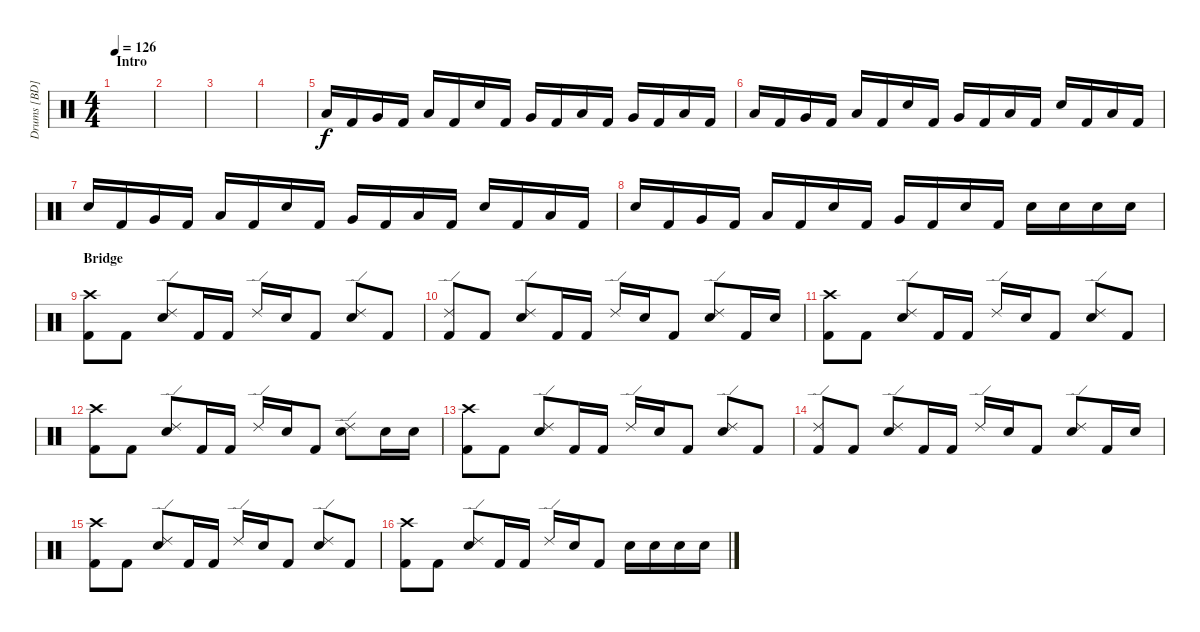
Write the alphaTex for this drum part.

\track ("Drums [BD]" "Drums [BD]") {instrument percussion}
\staff {score}
\articulation defaults
\ts (4 4)
\section ("" "Intro")
\tempo 126
\clef neutral
\ks c
|
|
|
|
"Low Tom (hit)".16 "Kick (hit) 2".16 "Very Low Tom (hit)".16 "Kick (hit) 2".16 "Low Floor Tom (hit)".16 "Kick (hit) 2".16 "Electric Snare (hit)".16 "Kick (hit) 2".16 "Very Low Tom (hit)".16 "Kick (hit) 2".16 "Low Floor Tom (hit)".16 "Kick (hit) 2".16 "Very Low Tom (hit)".16 "Kick (hit) 2".16 "Low Floor Tom (hit)".16 "Kick (hit) 2".16 |
"Low Tom (hit)".16 "Kick (hit) 2".16 "Very Low Tom (hit)".16 "Kick (hit) 2".16 "Low Floor Tom (hit)".16 "Kick (hit) 2".16 "Electric Snare (hit)".16 "Kick (hit) 2".16 "Very Low Tom (hit)".16 "Kick (hit) 2".16 "Low Floor Tom (hit)".16 "Kick (hit) 2".16 "Electric Snare (hit)".16 "Kick (hit) 2".16 "Low Floor Tom (hit)".16 "Kick (hit) 2".16 |
"Electric Snare (hit)".16 "Kick (hit) 2".16 "Very Low Tom (hit)".16 "Kick (hit) 2".16 "Low Floor Tom (hit)".16 "Kick (hit) 2".16 "Electric Snare (hit)".16 "Kick (hit) 2".16 "Very Low Tom (hit)".16 "Kick (hit) 2".16 "Low Floor Tom (hit)".16 "Kick (hit) 2".16 "Electric Snare (hit)".16 "Kick (hit) 2".16 "Low Floor Tom (hit)".16 "Kick (hit) 2".16 |
"Electric Snare (hit)".16 "Kick (hit) 2".16 "Very Low Tom (hit)".16 "Kick (hit) 2".16 "Low Floor Tom (hit)".16 "Kick (hit) 2".16 "Electric Snare (hit)".16 "Kick (hit) 2".16 "Very Low Tom (hit)".16 "Kick (hit) 2".16 "Electric Snare (hit)".16 "Kick (hit) 2".16 "Electric Snare (hit)".16 "Electric Snare (hit)".16 "Electric Snare (hit)".16 "Electric Snare (hit)".16 |
\section ("" "Bridge")
("Kick (hit) 2" "Crash high (hit)").8 "Kick (hit) 2".8 ("Electric Snare (hit)" "Ride (edge) 2").8 "Kick (hit) 2".16 "Kick (hit) 2".16 "Ride (edge) 2".16 "Electric Snare (hit)".16 "Kick (hit) 2".8 ("Electric Snare (hit)" "Ride (edge) 2").8 "Kick (hit) 2".8 |
("Kick (hit) 2" "Ride (edge) 2").8 "Kick (hit) 2".8 ("Electric Snare (hit)" "Ride (edge) 2").8 "Kick (hit) 2".16 "Kick (hit) 2".16 "Ride (edge) 2".16 "Electric Snare (hit)".16 "Kick (hit) 2".8 ("Electric Snare (hit)" "Ride (edge) 2").8 "Kick (hit) 2".16 "Electric Snare (hit)".16 |
("Kick (hit) 2" "Crash high (hit)").8 "Kick (hit) 2".8 ("Electric Snare (hit)" "Ride (edge) 2").8 "Kick (hit) 2".16 "Kick (hit) 2".16 "Ride (edge) 2".16 "Electric Snare (hit)".16 "Kick (hit) 2".8 ("Electric Snare (hit)" "Ride (edge) 2").8 "Kick (hit) 2".8 |
("Kick (hit) 2" "Crash high (hit)").8 "Kick (hit) 2".8 ("Electric Snare (hit)" "Ride (edge) 2").8 "Kick (hit) 2".16 "Kick (hit) 2".16 "Ride (edge) 2".16 "Electric Snare (hit)".16 "Kick (hit) 2".8 ("Electric Snare (hit)" "Ride (edge) 2").8 "Electric Snare (hit)".16 "Electric Snare (hit)".16 |
("Kick (hit) 2" "Crash high (hit)").8 "Kick (hit) 2".8 ("Electric Snare (hit)" "Ride (edge) 2").8 "Kick (hit) 2".16 "Kick (hit) 2".16 "Ride (edge) 2".16 "Electric Snare (hit)".16 "Kick (hit) 2".8 ("Electric Snare (hit)" "Ride (edge) 2").8 "Kick (hit) 2".8 |
("Kick (hit) 2" "Ride (edge) 2").8 "Kick (hit) 2".8 ("Electric Snare (hit)" "Ride (edge) 2").8 "Kick (hit) 2".16 "Kick (hit) 2".16 "Ride (edge) 2".16 "Electric Snare (hit)".16 "Kick (hit) 2".8 ("Electric Snare (hit)" "Ride (edge) 2").8 "Kick (hit) 2".16 "Electric Snare (hit)".16 |
("Kick (hit) 2" "Crash high (hit)").8 "Kick (hit) 2".8 ("Electric Snare (hit)" "Ride (edge) 2").8 "Kick (hit) 2".16 "Kick (hit) 2".16 "Ride (edge) 2".16 "Electric Snare (hit)".16 "Kick (hit) 2".8 ("Electric Snare (hit)" "Ride (edge) 2").8 "Kick (hit) 2".8 |
("Kick (hit) 2" "Crash high (hit)").8 "Kick (hit) 2".8 ("Electric Snare (hit)" "Ride (edge) 2").8 "Kick (hit) 2".16 "Kick (hit) 2".16 "Ride (edge) 2".16 "Electric Snare (hit)".16 "Kick (hit) 2".8 "Electric Snare (hit)".16 "Electric Snare (hit)".16 "Electric Snare (hit)".16 "Electric Snare (hit)".16
